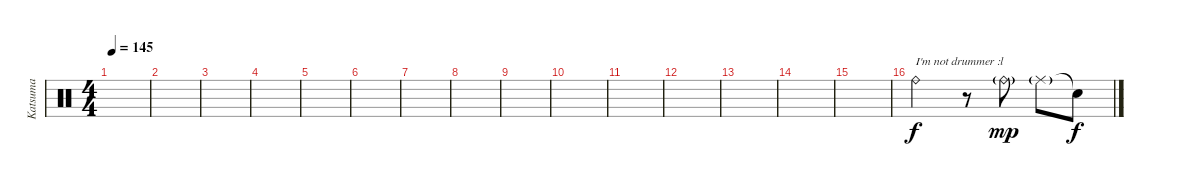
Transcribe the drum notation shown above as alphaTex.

\track ("Katsuma " "Katsuma ") {instrument percussion}
\staff {score}
\articulation defaults
\ts (4 4)
\tempo 145
\clef neutral
\ks c
|
|
|
|
|
|
|
|
|
|
|
|
|
|
|
"Ride (bell)".2{txt "I'm not drummer :l"} r.8 "Ride (bell)"{g}.8{dy mp} "Ride (middle)"{g}.8 "Snare (hit)"{t}.8{dy f}
